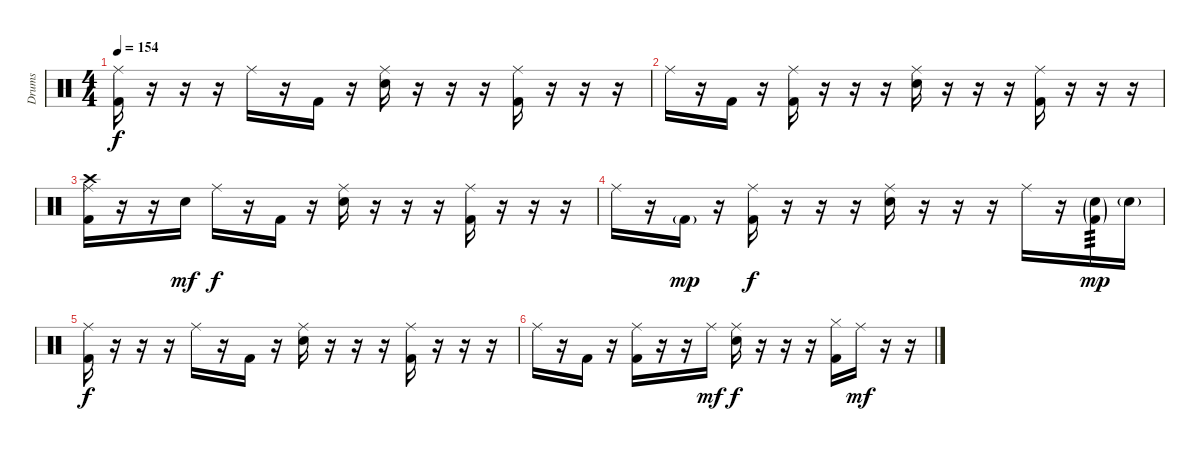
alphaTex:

\track ("Drums" "Drums") {instrument percussion}
\staff {score}
\articulation defaults
\ts (4 4)
\tempo 154
\clef neutral
\ks c
("Ride (middle)" "Kick (hit) 2").16{dy f} r.16 r.16 r.16 "Ride (middle)".16 r.16 "Kick (hit) 2".16 r.16 ("Ride (middle)" "Electric Snare (hit)").16 r.16 r.16 r.16 ("Ride (middle)" "Kick (hit) 2").16 r.16 r.16 r.16 |
"Ride (middle)".16 r.16 "Kick (hit) 2".16 r.16 ("Ride (middle)" "Kick (hit) 2").16 r.16 r.16 r.16 ("Ride (middle)" "Electric Snare (hit)").16 r.16 r.16 r.16 ("Ride (middle)" "Kick (hit) 2").16 r.16 r.16 r.16 |
("Crash high (hit)" "Ride (middle)" "Kick (hit) 2").16 r.16 r.16 "Snare (hit)".16{dy mf} "Ride (middle)".16{dy f} r.16 "Kick (hit) 2".16 r.16 ("Ride (middle)" "Electric Snare (hit)").16 r.16 r.16 r.16 ("Ride (middle)" "Kick (hit) 2").16 r.16 r.16 r.16 |
"Ride (middle)".16 r.16 "Kick (hit) 2"{g}.16{dy mp} r.16 ("Ride (middle)" "Kick (hit) 2").16{dy f} r.16 r.16 r.16 ("Ride (middle)" "Electric Snare (hit)").16 r.16 r.16 r.16 "Ride (middle)".16 r.16 ("Electric Snare (hit)"{g} "Kick (hit) 2"{g}).16{tp 3 dy mp} "Electric Snare (hit)"{g}.16 |
("Ride (middle)" "Kick (hit) 2").16{dy f} r.16 r.16 r.16 "Ride (middle)".16 r.16 "Kick (hit) 2".16 r.16 ("Ride (middle)" "Electric Snare (hit)").16 r.16 r.16 r.16 ("Ride (middle)" "Kick (hit) 2").16 r.16 r.16 r.16 |
"Ride (middle)".16 r.16 "Kick (hit) 2".16 r.16 ("Ride (middle)" "Kick (hit) 2").16 r.16 r.16 "Ride (middle)".16{dy mf} ("Ride (middle)" "Electric Snare (hit)").16{dy f} r.16 r.16 r.16 ("Hi-Hat (closed)" "Kick (hit) 2").16 "Ride (middle)".16{dy mf} r.16 r.16
